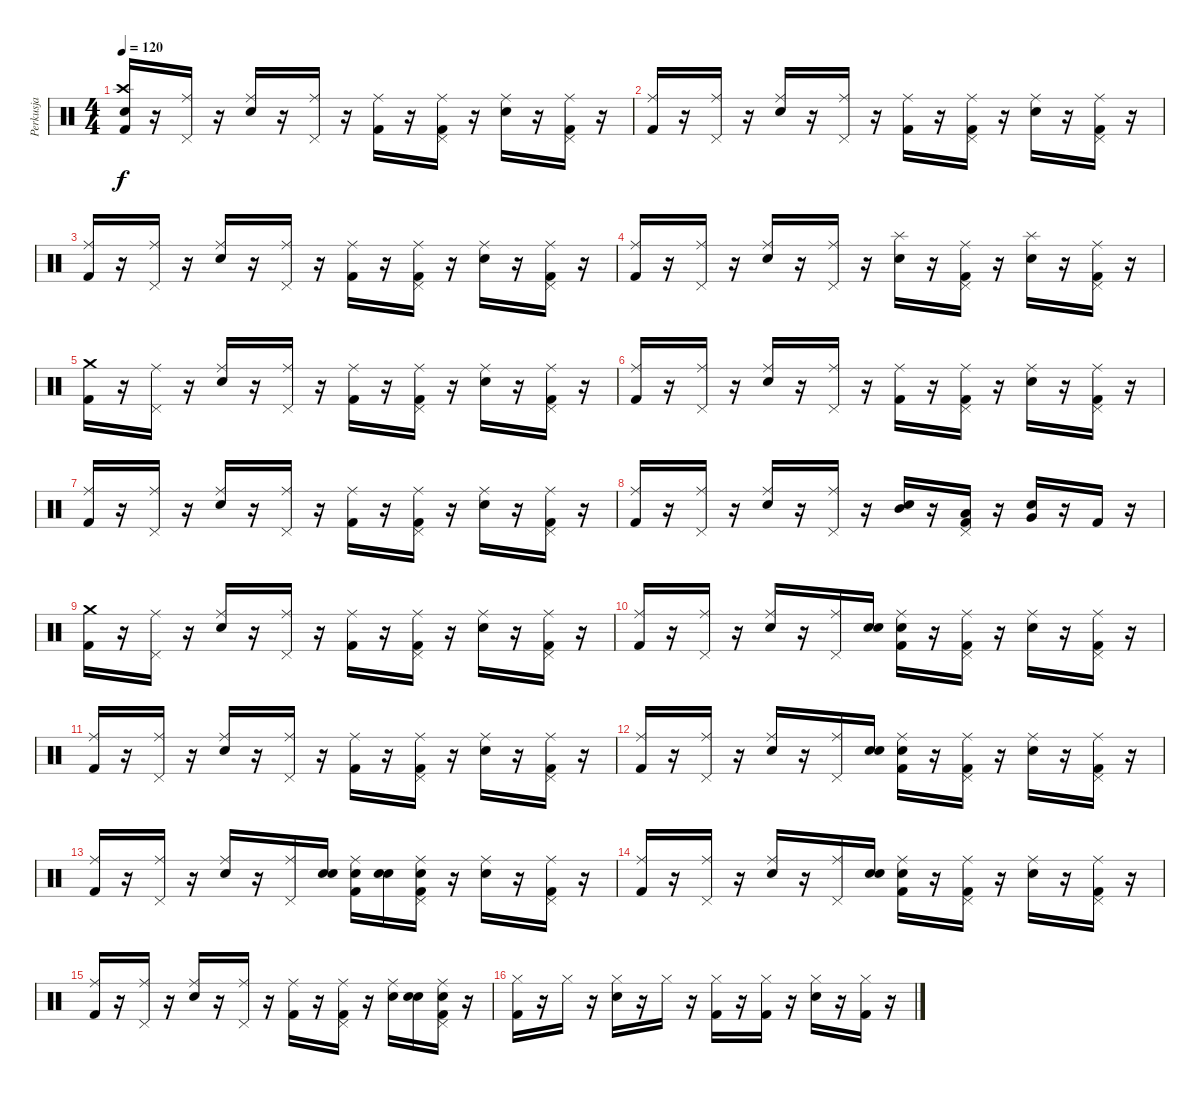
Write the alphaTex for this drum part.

\track ("Perkusja" "Perkusja") {instrument percussion}
\staff {score}
\articulation defaults
\ts (4 4)
\tempo 120
\clef neutral
\ks c
("Snare (hit)" "Crash high (hit)" "Kick (hit) 2").16{dy f} r.16 ("Pedal Hi-Hat (hit)" "Ride (middle)").16 r.16 ("Ride (middle)" "Snare (hit) 2").16 r.16 ("Ride (middle)" "Pedal Hi-Hat (hit)").16 r.16 ("Ride (middle)" "Kick (hit) 2").16 r.16 ("Kick (hit) 2" "Pedal Hi-Hat (hit)" "Ride (middle)").16 r.16 ("Ride (middle)" "Snare (hit) 2").16 r.16 ("Ride (middle)" "Kick (hit) 2" "Pedal Hi-Hat (hit)").16 r.16 |
("Kick (hit) 2" "Ride (middle)").16 r.16 ("Ride (middle)" "Pedal Hi-Hat (hit)").16 r.16 ("Ride (middle)" "Snare (hit) 2").16 r.16 ("Pedal Hi-Hat (hit)" "Ride (middle)").16 r.16 ("Ride (middle)" "Kick (hit) 2").16 r.16 ("Pedal Hi-Hat (hit)" "Ride (middle)" "Kick (hit) 2").16 r.16 ("Ride (middle)" "Snare (hit) 2").16 r.16 ("Pedal Hi-Hat (hit)" "Kick (hit) 2" "Ride (middle)").16 r.16 |
("Ride (middle)" "Kick (hit) 2").16 r.16 ("Pedal Hi-Hat (hit)" "Ride (middle)").16 r.16 ("Snare (hit) 2" "Ride (middle)").16 r.16 ("Ride (middle)" "Pedal Hi-Hat (hit)").16 r.16 ("Ride (middle)" "Kick (hit) 2").16 r.16 ("Ride (middle)" "Kick (hit) 2" "Pedal Hi-Hat (hit)").16 r.16 ("Snare (hit) 2" "Ride (middle)").16 r.16 ("Pedal Hi-Hat (hit)" "Ride (middle)" "Kick (hit) 2").16 r.16 |
("Kick (hit) 2" "Ride (middle)").16 r.16 ("Pedal Hi-Hat (hit)" "Ride (middle)").16 r.16 ("Snare (hit) 2" "Ride (middle)").16 r.16 ("Ride (middle)" "Pedal Hi-Hat (hit)").16 r.16 ("Snare (hit) 2" "Splash (hit)").16 r.16 ("Ride (middle)" "Kick (hit) 2" "Pedal Hi-Hat (hit)").16 r.16 ("Snare (hit) 2" "Splash (hit)").16 r.16 ("Pedal Hi-Hat (hit)" "Kick (hit) 2" "Ride (middle)").16 r.16 |
("Crash medium (hit)" "Kick (hit) 2").16 r.16 ("Pedal Hi-Hat (hit)" "Ride (middle)").16 r.16 ("Ride (middle)" "Snare (hit) 2").16 r.16 ("Ride (middle)" "Pedal Hi-Hat (hit)").16 r.16 ("Ride (middle)" "Kick (hit) 2").16 r.16 ("Kick (hit) 2" "Ride (middle)" "Pedal Hi-Hat (hit)").16 r.16 ("Snare (hit) 2" "Ride (middle)").16 r.16 ("Pedal Hi-Hat (hit)" "Kick (hit) 2" "Ride (middle)").16 r.16 |
("Kick (hit) 2" "Ride (middle)").16 r.16 ("Pedal Hi-Hat (hit)" "Ride (middle)").16 r.16 ("Snare (hit) 2" "Ride (middle)").16 r.16 ("Ride (middle)" "Pedal Hi-Hat (hit)").16 r.16 ("Ride (middle)" "Kick (hit) 2").16 r.16 ("Pedal Hi-Hat (hit)" "Ride (middle)" "Kick (hit) 2").16 r.16 ("Snare (hit) 2" "Ride (middle)").16 r.16 ("Pedal Hi-Hat (hit)" "Ride (middle)" "Kick (hit) 2").16 r.16 |
("Ride (middle)" "Kick (hit) 2").16 r.16 ("Ride (middle)" "Pedal Hi-Hat (hit)").16 r.16 ("Snare (hit) 2" "Ride (middle)").16 r.16 ("Pedal Hi-Hat (hit)" "Ride (middle)").16 r.16 ("Ride (middle)" "Kick (hit) 2").16 r.16 ("Kick (hit) 2" "Pedal Hi-Hat (hit)" "Ride (middle)").16 r.16 ("Ride (middle)" "Snare (hit) 2").16 r.16 ("Ride (middle)" "Kick (hit) 2" "Pedal Hi-Hat (hit)").16 r.16 |
("Ride (middle)" "Kick (hit) 2").16 r.16 ("Pedal Hi-Hat (hit)" "Ride (middle)").16 r.16 ("Ride (middle)" "Snare (hit) 2").16 r.16 ("Pedal Hi-Hat (hit)" "Ride (middle)").16 r.16 ("Mid Tom (hit)" "Electric Snare (hit)").16 r.16 ("Pedal Hi-Hat (hit)" "Kick (hit) 2" "Low Tom (hit)").16 r.16 ("Very Low Tom (hit)" "Electric Snare (hit)").16 r.16 "Kick (hit) 2".16 r.16 |
("Kick (hit) 2" "Crash medium (hit)").16 r.16 ("Ride (middle)" "Pedal Hi-Hat (hit)").16 r.16 ("Ride (middle)" "Snare (hit) 2").16 r.16 ("Ride (middle)" "Pedal Hi-Hat (hit)").16 r.16 ("Ride (middle)" "Kick (hit) 2").16 r.16 ("Ride (middle)" "Pedal Hi-Hat (hit)" "Kick (hit) 2").16 r.16 ("Ride (middle)" "Snare (hit) 2").16 r.16 ("Ride (middle)" "Pedal Hi-Hat (hit)" "Kick (hit) 2").16 r.16 |
("Kick (hit) 2" "Ride (middle)").16 r.16 ("Pedal Hi-Hat (hit)" "Ride (middle)").16 r.16 ("Ride (middle)" "Snare (hit) 2").16 r.16 ("Ride (middle)" "Pedal Hi-Hat (hit)").16 ("Snare (hit)" "Snare (hit) 2").16 ("Snare (hit)" "Kick (hit) 2" "Ride (middle)").16 r.16 ("Ride (middle)" "Pedal Hi-Hat (hit)" "Kick (hit) 2").16 r.16 ("Snare (hit) 2" "Ride (middle)").16 r.16 ("Kick (hit) 2" "Pedal Hi-Hat (hit)" "Ride (middle)").16 r.16 |
("Ride (middle)" "Kick (hit) 2").16 r.16 ("Pedal Hi-Hat (hit)" "Ride (middle)").16 r.16 ("Ride (middle)" "Snare (hit) 2").16 r.16 ("Pedal Hi-Hat (hit)" "Ride (middle)").16 r.16 ("Ride (middle)" "Kick (hit) 2").16 r.16 ("Ride (middle)" "Kick (hit) 2" "Pedal Hi-Hat (hit)").16 r.16 ("Snare (hit) 2" "Ride (middle)").16 r.16 ("Pedal Hi-Hat (hit)" "Kick (hit) 2" "Ride (middle)").16 r.16 |
("Kick (hit) 2" "Ride (middle)").16 r.16 ("Pedal Hi-Hat (hit)" "Ride (middle)").16 r.16 ("Ride (middle)" "Snare (hit) 2").16 r.16 ("Pedal Hi-Hat (hit)" "Ride (middle)").16 ("Snare (hit)" "Snare (hit) 2").16 ("Snare (hit)" "Ride (middle)" "Kick (hit) 2").16 r.16 ("Ride (middle)" "Kick (hit) 2" "Pedal Hi-Hat (hit)").16 r.16 ("Snare (hit) 2" "Ride (middle)").16 r.16 ("Pedal Hi-Hat (hit)" "Ride (middle)" "Kick (hit) 2").16 r.16 |
("Ride (middle)" "Kick (hit) 2").16 r.16 ("Pedal Hi-Hat (hit)" "Ride (middle)").16 r.16 ("Snare (hit) 2" "Ride (middle)").16 r.16 ("Pedal Hi-Hat (hit)" "Ride (middle)").16 ("Snare (hit)" "Snare (hit) 2").16 ("Snare (hit)" "Ride (middle)" "Kick (hit) 2").16 ("Snare (hit)" "Snare (hit) 2").16 ("Snare (hit)" "Kick (hit) 2" "Ride (middle)" "Pedal Hi-Hat (hit)").16 r.16 ("Ride (middle)" "Snare (hit) 2").16 r.16 ("Ride (middle)" "Kick (hit) 2" "Pedal Hi-Hat (hit)").16 r.16 |
("Ride (middle)" "Kick (hit) 2").16 r.16 ("Pedal Hi-Hat (hit)" "Ride (middle)").16 r.16 ("Snare (hit) 2" "Ride (middle)").16 r.16 ("Pedal Hi-Hat (hit)" "Ride (middle)").16 ("Snare (hit)" "Snare (hit) 2").16 ("Snare (hit)" "Ride (middle)" "Kick (hit) 2").16 r.16 ("Kick (hit) 2" "Pedal Hi-Hat (hit)" "Ride (middle)").16 r.16 ("Snare (hit) 2" "Ride (middle)").16 r.16 ("Kick (hit) 2" "Ride (middle)" "Pedal Hi-Hat (hit)").16 r.16 |
("Kick (hit) 2" "Ride (middle)").16 r.16 ("Ride (middle)" "Pedal Hi-Hat (hit)").16 r.16 ("Ride (middle)" "Snare (hit) 2").16 r.16 ("Pedal Hi-Hat (hit)" "Ride (middle)").16 r.16 ("Ride (middle)" "Kick (hit) 2").16 r.16 ("Ride (middle)" "Pedal Hi-Hat (hit)" "Kick (hit) 2").16 r.16 ("Snare (hit) 2" "Ride (middle)").16 ("Snare (hit)" "Snare (hit) 2").16 ("Snare (hit)" "Kick (hit) 2" "Pedal Hi-Hat (hit)" "Ride (middle)").16 r.16 |
("Kick (hit) 2" "Hi-Hat (closed)").16 r.16 "Hi-Hat (closed)".16 r.16 ("Hi-Hat (closed)" "Snare (hit) 2").16 r.16 "Hi-Hat (closed)".16 r.16 ("Kick (hit) 2" "Hi-Hat (closed)").16 r.16 ("Kick (hit) 2" "Hi-Hat (closed)").16 r.16 ("Hi-Hat (closed)" "Snare (hit) 2").16 r.16 ("Kick (hit) 2" "Hi-Hat (closed)").16 r.16
